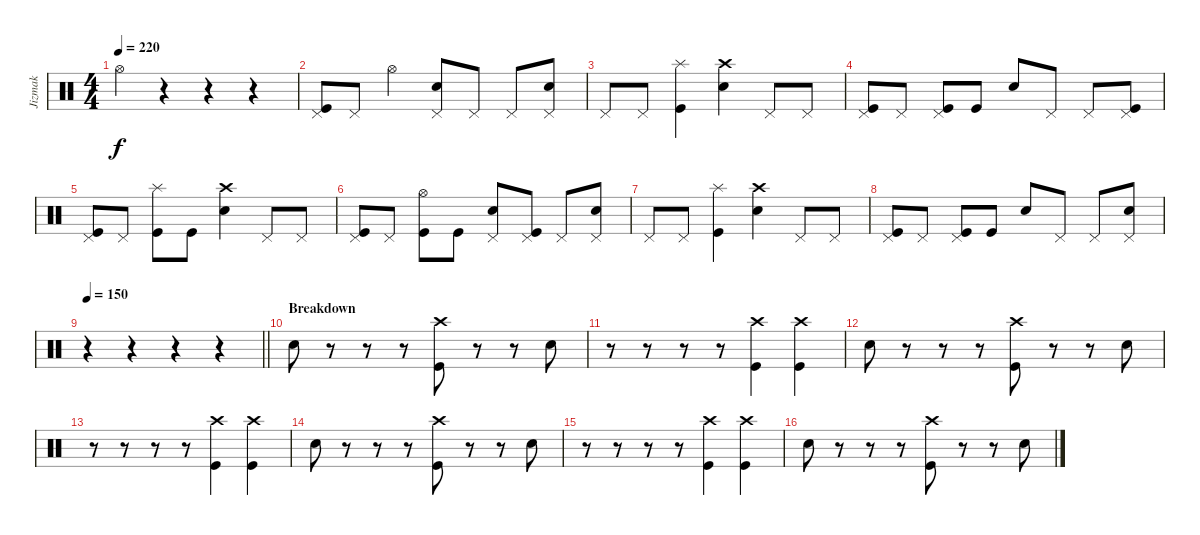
\track ("Jizmak" "Jizmak") {instrument percussion}
\staff {score}
\articulation defaults
\ts (4 4)
\tempo 220
\clef neutral
\ks c "Hi-Hat (open)".4{dy f}
r.4 r.4 r.4 |
("Pedal Hi-Hat (hit)" "Kick (hit)").8 "Pedal Hi-Hat (hit)".8 "Hi-Hat (open)".4 ("Pedal Hi-Hat (hit)" "Snare (hit) 2").8 "Pedal Hi-Hat (hit)".8 "Pedal Hi-Hat (hit)".8 ("Pedal Hi-Hat (hit)" "Snare (hit) 2").8 |
"Pedal Hi-Hat (hit)".8 "Pedal Hi-Hat (hit)".8 ("Splash (hit)" "Kick (hit)").4 ("Crash high (hit)" "Snare (hit) 2").4 "Pedal Hi-Hat (hit)".8 "Pedal Hi-Hat (hit)".8 |
("Pedal Hi-Hat (hit)" "Kick (hit)").8 "Pedal Hi-Hat (hit)".8 ("Pedal Hi-Hat (hit)" "Kick (hit)").8 "Kick (hit)".8 "Snare (hit) 2".8 "Pedal Hi-Hat (hit)".8 "Pedal Hi-Hat (hit)".8 ("Pedal Hi-Hat (hit)" "Kick (hit)").8 |
("Pedal Hi-Hat (hit)" "Kick (hit)").8 "Pedal Hi-Hat (hit)".8 ("Splash (hit)" "Kick (hit)").8 "Kick (hit)".8 ("Crash high (hit)" "Snare (hit) 2").4 "Pedal Hi-Hat (hit)".8 "Pedal Hi-Hat (hit)".8 |
("Pedal Hi-Hat (hit)" "Kick (hit)").8 "Pedal Hi-Hat (hit)".8 ("Hi-Hat (open)" "Kick (hit)").8 "Kick (hit)".8 ("Pedal Hi-Hat (hit)" "Snare (hit) 2").8 ("Pedal Hi-Hat (hit)" "Kick (hit)").8 "Pedal Hi-Hat (hit)".8 ("Pedal Hi-Hat (hit)" "Snare (hit) 2").8 |
"Pedal Hi-Hat (hit)".8 "Pedal Hi-Hat (hit)".8 ("Splash (hit)" "Kick (hit)").4 ("Crash high (hit)" "Snare (hit) 2").4 "Pedal Hi-Hat (hit)".8 "Pedal Hi-Hat (hit)".8 |
("Pedal Hi-Hat (hit)" "Kick (hit)").8 "Pedal Hi-Hat (hit)".8 ("Pedal Hi-Hat (hit)" "Kick (hit)").8 "Kick (hit)".8 "Snare (hit) 2".8 "Pedal Hi-Hat (hit)".8 "Pedal Hi-Hat (hit)".8 ("Pedal Hi-Hat (hit)" "Snare (hit) 2").8 |
\tempo 150
\barLineRight lightlight
r.4 r.4 r.4 r.4 |
\section ("" "Breakdown")
"Snare (hit) 2".8 r.8 r.8 r.8 ("Crash high (hit)" "Kick (hit)").8 r.8 r.8 "Snare (hit) 2".8 |
r.8 r.8 r.8 r.8 ("Crash high (hit)" "Kick (hit)").4 ("Crash high (hit)" "Kick (hit)").4 |
"Snare (hit) 2".8 r.8 r.8 r.8 ("Crash high (hit)" "Kick (hit)").8 r.8 r.8 "Snare (hit) 2".8 |
r.8 r.8 r.8 r.8 ("Crash high (hit)" "Kick (hit)").4 ("Crash high (hit)" "Kick (hit)").4 |
"Snare (hit) 2".8 r.8 r.8 r.8 ("Crash high (hit)" "Kick (hit)").8 r.8 r.8 "Snare (hit) 2".8 |
r.8 r.8 r.8 r.8 ("Crash high (hit)" "Kick (hit)").4 ("Crash high (hit)" "Kick (hit)").4 |
"Snare (hit) 2".8 r.8 r.8 r.8 ("Crash high (hit)" "Kick (hit)").8 r.8 r.8 "Snare (hit) 2".8
